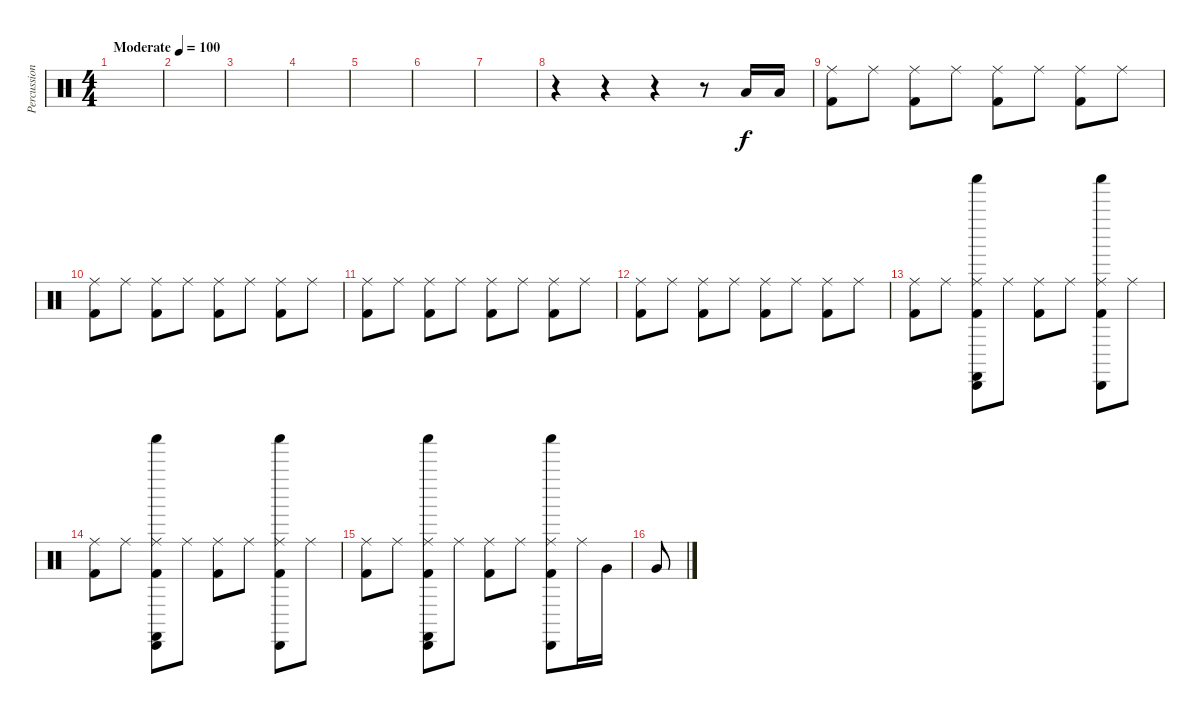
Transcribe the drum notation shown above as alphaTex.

\track ("Percussion" "Percussion") {instrument percussion}
\staff {score}
\articulation defaults
\ts (4 4)
\tempo (100 "Moderate")
\clef neutral
\ks c
|
|
|
|
|
|
|
r.4 r.4 r.4 r.8 "Low Tom (hit)".16 "Low Tom (hit)".16 |
("Kick (hit) 2" "Ride (middle)").8 "Ride (middle)".8 ("Kick (hit) 2" "Ride (middle)").8 "Ride (middle)".8 ("Kick (hit) 2" "Ride (middle)").8 "Ride (middle)".8 ("Kick (hit) 2" "Ride (middle)").8 "Ride (middle)".8 |
("Kick (hit) 2" "Ride (middle)").8 "Ride (middle)".8 ("Kick (hit) 2" "Ride (middle)").8 "Ride (middle)".8 ("Kick (hit) 2" "Ride (middle)").8 "Ride (middle)".8 ("Kick (hit) 2" "Ride (middle)").8 "Ride (middle)".8 |
("Kick (hit) 2" "Ride (middle)").8 "Ride (middle)".8 ("Kick (hit) 2" "Ride (middle)").8 "Ride (middle)".8 ("Kick (hit) 2" "Ride (middle)").8 "Ride (middle)".8 ("Kick (hit) 2" "Ride (middle)").8 "Ride (middle)".8 |
("Kick (hit) 2" "Ride (middle)").8 "Ride (middle)".8 ("Kick (hit) 2" "Ride (middle)").8 "Ride (middle)".8 ("Kick (hit) 2" "Ride (middle)").8 "Ride (middle)".8 ("Kick (hit) 2" "Ride (middle)").8 "Ride (middle)".8 |
("Kick (hit) 2" "Ride (middle)").8 "Ride (middle)".8 ("Cabasa (hit)" "Castanets (hit)" "Shaker (hit)" "Kick (hit) 2" "Ride (middle)").8 "Ride (middle)".8 ("Kick (hit) 2" "Ride (middle)").8 "Ride (middle)".8 ("Shaker (hit)" "Cabasa (hit)" "Kick (hit) 2" "Ride (middle)").8 "Ride (middle)".8 |
("Kick (hit) 2" "Ride (middle)").8 "Ride (middle)".8 ("Cabasa (hit)" "Castanets (hit)" "Shaker (hit)" "Kick (hit) 2" "Ride (middle)").8 "Ride (middle)".8 ("Kick (hit) 2" "Ride (middle)").8 "Ride (middle)".8 ("Shaker (hit)" "Cabasa (hit)" "Kick (hit) 2" "Ride (middle)").8 "Ride (middle)".8 |
("Kick (hit) 2" "Ride (middle)").8 "Ride (middle)".8 ("Cabasa (hit)" "Castanets (hit)" "Shaker (hit)" "Kick (hit) 2" "Ride (middle)").8 "Ride (middle)".8 ("Kick (hit) 2" "Ride (middle)").8 "Ride (middle)".8 ("Shaker (hit)" "Cabasa (hit)" "Kick (hit) 2" "Ride (middle)").8 "Ride (middle)".16 "Very Low Tom (hit)".16 |
"Very Low Tom (hit)".8
